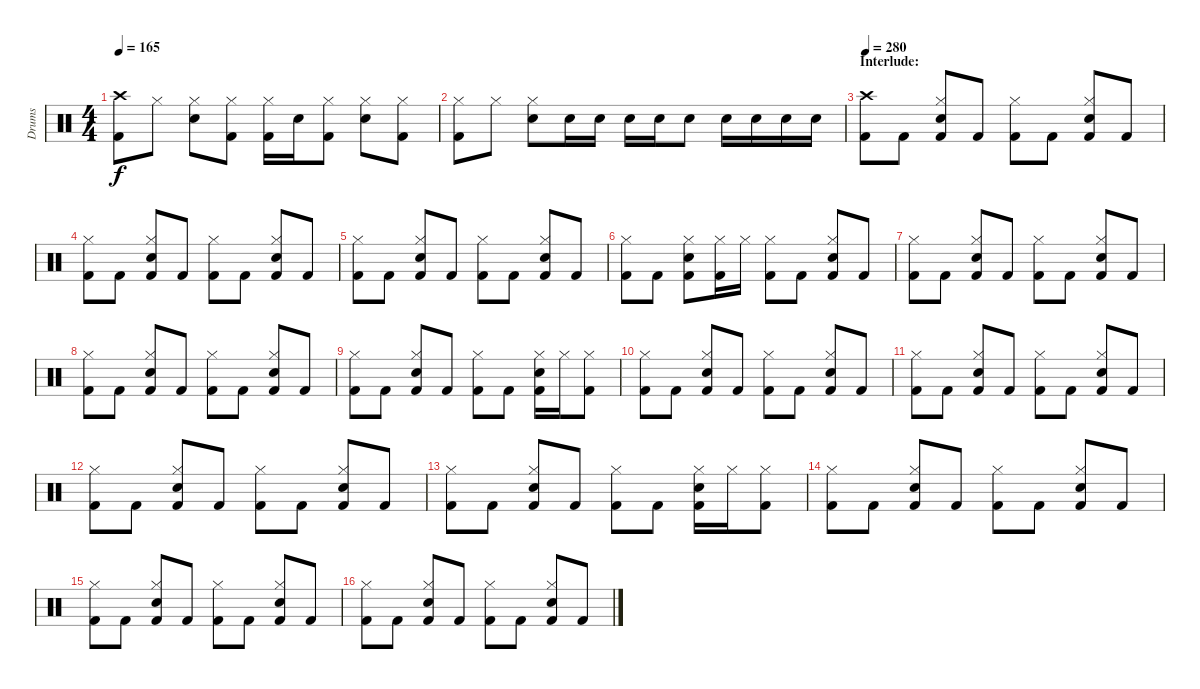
\track ("Drums" "Drums") {instrument percussion}
\staff {score}
\articulation defaults
\ts (4 4)
\tempo 165
\clef neutral
\ks c
("Crash high (hit)" "Kick (hit) 2").8{dy f} "Hi-Hat (closed)".8 ("Hi-Hat (closed)" "Snare (hit) 2").8 ("Hi-Hat (closed)" "Kick (hit) 2").8 ("Hi-Hat (closed)" "Kick (hit) 2").16 "Snare (hit) 2".16 ("Hi-Hat (closed)" "Kick (hit) 2").8 ("Hi-Hat (closed)" "Snare (hit) 2").8 ("Hi-Hat (closed)" "Kick (hit) 2").8 |
("Hi-Hat (closed)" "Kick (hit) 2").8 "Hi-Hat (closed)".8 ("Hi-Hat (closed)" "Snare (hit) 2").8 "Snare (hit) 2".16 "Snare (hit) 2".16 "Snare (hit) 2".16 "Snare (hit) 2".16 "Snare (hit) 2".8 "Snare (hit) 2".16 "Snare (hit) 2".16 "Snare (hit) 2".16 "Snare (hit) 2".16 |
\section ("" "Interlude:")
\tempo 280
("Crash high (hit)" "Kick (hit) 2").8 "Kick (hit) 2".8 ("Hi-Hat (closed)" "Snare (hit) 2" "Kick (hit) 2").8 "Kick (hit) 2".8 ("Hi-Hat (closed)" "Kick (hit) 2").8 "Kick (hit) 2".8 ("Hi-Hat (closed)" "Snare (hit) 2" "Kick (hit) 2").8 "Kick (hit) 2".8 |
("Hi-Hat (closed)" "Kick (hit) 2").8 "Kick (hit) 2".8 ("Hi-Hat (closed)" "Snare (hit) 2" "Kick (hit) 2").8 "Kick (hit) 2".8 ("Hi-Hat (closed)" "Kick (hit) 2").8 "Kick (hit) 2".8 ("Hi-Hat (closed)" "Snare (hit) 2" "Kick (hit) 2").8 "Kick (hit) 2".8 |
("Hi-Hat (closed)" "Kick (hit) 2").8 "Kick (hit) 2".8 ("Hi-Hat (closed)" "Snare (hit) 2" "Kick (hit) 2").8 "Kick (hit) 2".8 ("Hi-Hat (closed)" "Kick (hit) 2").8 "Kick (hit) 2".8 ("Hi-Hat (closed)" "Snare (hit) 2" "Kick (hit) 2").8 "Kick (hit) 2".8 |
("Hi-Hat (closed)" "Kick (hit) 2").8 "Kick (hit) 2".8 ("Hi-Hat (closed)" "Snare (hit) 2" "Kick (hit) 2").8 ("Hi-Hat (closed)" "Kick (hit) 2").16 "Hi-Hat (closed)".16 ("Hi-Hat (closed)" "Kick (hit) 2").8 "Kick (hit) 2".8 ("Hi-Hat (closed)" "Snare (hit) 2" "Kick (hit) 2").8 "Kick (hit) 2".8 |
("Hi-Hat (closed)" "Kick (hit) 2").8 "Kick (hit) 2".8 ("Hi-Hat (closed)" "Snare (hit) 2" "Kick (hit) 2").8 "Kick (hit) 2".8 ("Hi-Hat (closed)" "Kick (hit) 2").8 "Kick (hit) 2".8 ("Hi-Hat (closed)" "Snare (hit) 2" "Kick (hit) 2").8 "Kick (hit) 2".8 |
("Hi-Hat (closed)" "Kick (hit) 2").8 "Kick (hit) 2".8 ("Hi-Hat (closed)" "Snare (hit) 2" "Kick (hit) 2").8 "Kick (hit) 2".8 ("Hi-Hat (closed)" "Kick (hit) 2").8 "Kick (hit) 2".8 ("Hi-Hat (closed)" "Snare (hit) 2" "Kick (hit) 2").8 "Kick (hit) 2".8 |
("Hi-Hat (closed)" "Kick (hit) 2").8 "Kick (hit) 2".8 ("Hi-Hat (closed)" "Snare (hit) 2" "Kick (hit) 2").8 "Kick (hit) 2".8 ("Hi-Hat (closed)" "Kick (hit) 2").8 "Kick (hit) 2".8 ("Hi-Hat (closed)" "Snare (hit) 2" "Kick (hit) 2").16 "Hi-Hat (closed)".16 ("Hi-Hat (closed)" "Kick (hit) 2").8 |
("Hi-Hat (closed)" "Kick (hit) 2").8 "Kick (hit) 2".8 ("Hi-Hat (closed)" "Snare (hit) 2" "Kick (hit) 2").8 "Kick (hit) 2".8 ("Hi-Hat (closed)" "Kick (hit) 2").8 "Kick (hit) 2".8 ("Hi-Hat (closed)" "Snare (hit) 2" "Kick (hit) 2").8 "Kick (hit) 2".8 |
("Hi-Hat (closed)" "Kick (hit) 2").8 "Kick (hit) 2".8 ("Hi-Hat (closed)" "Snare (hit) 2" "Kick (hit) 2").8 "Kick (hit) 2".8 ("Hi-Hat (closed)" "Kick (hit) 2").8 "Kick (hit) 2".8 ("Hi-Hat (closed)" "Snare (hit) 2" "Kick (hit) 2").8 "Kick (hit) 2".8 |
("Hi-Hat (closed)" "Kick (hit) 2").8 "Kick (hit) 2".8 ("Hi-Hat (closed)" "Snare (hit) 2" "Kick (hit) 2").8 "Kick (hit) 2".8 ("Hi-Hat (closed)" "Kick (hit) 2").8 "Kick (hit) 2".8 ("Hi-Hat (closed)" "Snare (hit) 2" "Kick (hit) 2").8 "Kick (hit) 2".8 |
("Hi-Hat (closed)" "Kick (hit) 2").8 "Kick (hit) 2".8 ("Hi-Hat (closed)" "Snare (hit) 2" "Kick (hit) 2").8 "Kick (hit) 2".8 ("Hi-Hat (closed)" "Kick (hit) 2").8 "Kick (hit) 2".8 ("Hi-Hat (closed)" "Snare (hit) 2" "Kick (hit) 2").16 "Hi-Hat (closed)".16 ("Hi-Hat (closed)" "Kick (hit) 2").8 |
("Hi-Hat (closed)" "Kick (hit) 2").8 "Kick (hit) 2".8 ("Hi-Hat (closed)" "Snare (hit) 2" "Kick (hit) 2").8 "Kick (hit) 2".8 ("Hi-Hat (closed)" "Kick (hit) 2").8 "Kick (hit) 2".8 ("Hi-Hat (closed)" "Snare (hit) 2" "Kick (hit) 2").8 "Kick (hit) 2".8 |
("Hi-Hat (closed)" "Kick (hit) 2").8 "Kick (hit) 2".8 ("Hi-Hat (closed)" "Snare (hit) 2" "Kick (hit) 2").8 "Kick (hit) 2".8 ("Hi-Hat (closed)" "Kick (hit) 2").8 "Kick (hit) 2".8 ("Hi-Hat (closed)" "Snare (hit) 2" "Kick (hit) 2").8 "Kick (hit) 2".8 |
("Hi-Hat (closed)" "Kick (hit) 2").8 "Kick (hit) 2".8 ("Hi-Hat (closed)" "Snare (hit) 2" "Kick (hit) 2").8 "Kick (hit) 2".8 ("Hi-Hat (closed)" "Kick (hit) 2").8 "Kick (hit) 2".8 ("Hi-Hat (closed)" "Snare (hit) 2" "Kick (hit) 2").8 "Kick (hit) 2".8
